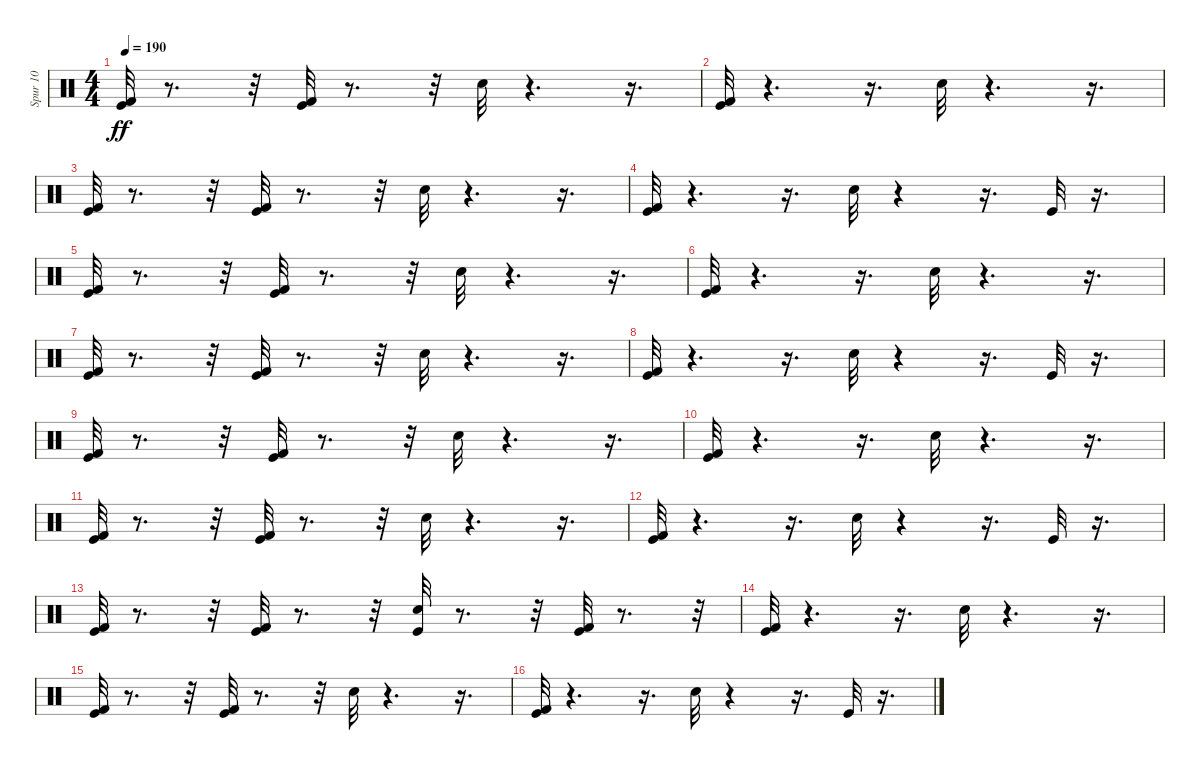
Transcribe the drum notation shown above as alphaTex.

\track ("Spur 10" "Spur 10") {instrument percussion}
\staff {score}
\articulation defaults
\ts (4 4)
\tempo 190
\clef neutral
\ks c
("Kick (hit) 2" "Kick (hit)").32{dy ff} r.8{d} r.32 ("Kick (hit) 2" "Kick (hit)").32 r.8{d} r.32 "Hand Clap (hit)".32 r.4{d} r.16{d} |
("Kick (hit) 2" "Kick (hit)").32 r.4{d} r.16{d} "Hand Clap (hit)".32 r.4{d} r.16{d} |
("Kick (hit) 2" "Kick (hit)").32 r.8{d} r.32 ("Kick (hit) 2" "Kick (hit)").32 r.8{d} r.32 "Hand Clap (hit)".32 r.4{d} r.16{d} |
("Kick (hit) 2" "Kick (hit)").32 r.4{d} r.16{d} "Hand Clap (hit)".32 r.4 r.16{d} "Kick (hit)".32 r.16{d} |
("Kick (hit) 2" "Kick (hit)").32 r.8{d} r.32 ("Kick (hit) 2" "Kick (hit)").32 r.8{d} r.32 "Hand Clap (hit)".32 r.4{d} r.16{d} |
("Kick (hit) 2" "Kick (hit)").32 r.4{d} r.16{d} "Hand Clap (hit)".32 r.4{d} r.16{d} |
("Kick (hit) 2" "Kick (hit)").32 r.8{d} r.32 ("Kick (hit) 2" "Kick (hit)").32 r.8{d} r.32 "Hand Clap (hit)".32 r.4{d} r.16{d} |
("Kick (hit) 2" "Kick (hit)").32 r.4{d} r.16{d} "Hand Clap (hit)".32 r.4 r.16{d} "Kick (hit)".32 r.16{d} |
("Kick (hit) 2" "Kick (hit)").32 r.8{d} r.32 ("Kick (hit) 2" "Kick (hit)").32 r.8{d} r.32 "Hand Clap (hit)".32 r.4{d} r.16{d} |
("Kick (hit) 2" "Kick (hit)").32 r.4{d} r.16{d} "Hand Clap (hit)".32 r.4{d} r.16{d} |
("Kick (hit) 2" "Kick (hit)").32 r.8{d} r.32 ("Kick (hit) 2" "Kick (hit)").32 r.8{d} r.32 "Hand Clap (hit)".32 r.4{d} r.16{d} |
("Kick (hit) 2" "Kick (hit)").32 r.4{d} r.16{d} "Hand Clap (hit)".32 r.4 r.16{d} "Kick (hit)".32 r.16{d} |
("Kick (hit) 2" "Kick (hit)").32 r.8{d} r.32 ("Kick (hit) 2" "Kick (hit)").32 r.8{d} r.32 ("Kick (hit)" "Hand Clap (hit)").32 r.8{d} r.32 ("Kick (hit) 2" "Kick (hit)").32 r.8{d} r.32 |
("Kick (hit) 2" "Kick (hit)").32 r.4{d} r.16{d} "Hand Clap (hit)".32 r.4{d} r.16{d} |
("Kick (hit) 2" "Kick (hit)").32 r.8{d} r.32 ("Kick (hit) 2" "Kick (hit)").32 r.8{d} r.32 "Hand Clap (hit)".32 r.4{d} r.16{d} |
("Kick (hit) 2" "Kick (hit)").32 r.4{d} r.16{d} "Hand Clap (hit)".32 r.4 r.16{d} "Kick (hit)".32 r.16{d}
